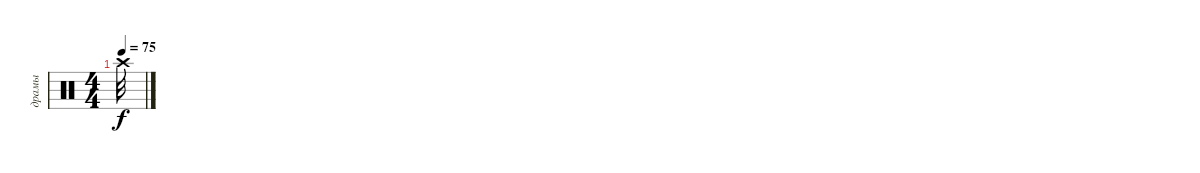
\track ("драмы" "драмы") {instrument percussion}
\staff {score}
\articulation defaults
\ts (4 4)
\tempo 75
\clef neutral
\ks c "Crash high (hit)".32{dy f}
